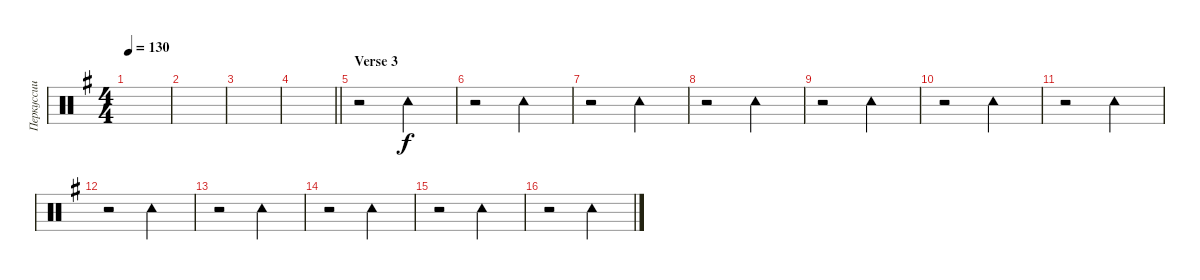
\track ("Перкуссии" "Перкуссии") {instrument percussion}
\staff {score}
\articulation defaults
\ts (4 4)
\tempo 130
\clef neutral
\ks eminor
|
|
|
\barLineRight lightlight
|
\section ("" "Verse 3")
r.2 "Tambourine (hit)".2 |
r.2 "Tambourine (hit)".2 |
r.2 "Tambourine (hit)".2 |
r.2 "Tambourine (hit)".2 |
r.2 "Tambourine (hit)".2 |
r.2 "Tambourine (hit)".2 |
r.2 "Tambourine (hit)".2 |
r.2 "Tambourine (hit)".2 |
r.2 "Tambourine (hit)".2 |
r.2 "Tambourine (hit)".2 |
r.2 "Tambourine (hit)".2 |
r.2 "Tambourine (hit)".2
